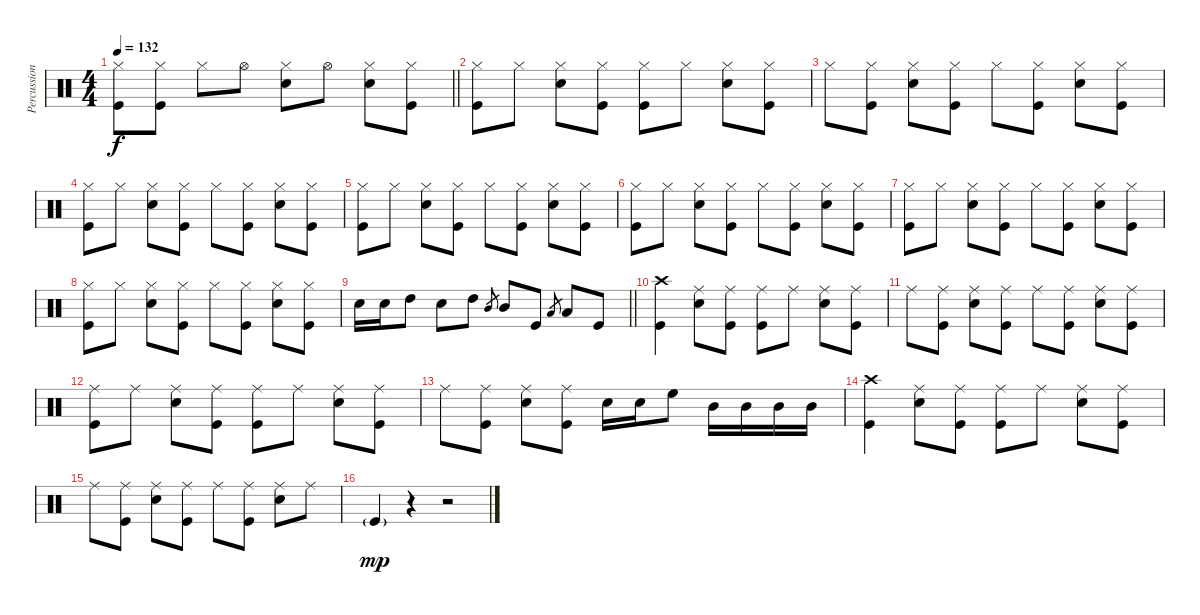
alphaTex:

\track ("Percussion" "Percussion") {instrument percussion}
\staff {score}
\articulation defaults
\ts (4 4)
\tempo 132
\clef neutral
\barLineRight lightlight
\ks c
("Kick (hit)" "Hi-Hat (closed)").8{dy f} ("Kick (hit)" "Hi-Hat (closed)").8 "Hi-Hat (closed)".8 "Hi-Hat (open)".8 ("Snare (hit) 2" "Hi-Hat (closed)").8 "Hi-Hat (open)".8 ("Snare (hit) 2" "Hi-Hat (closed)").8 ("Kick (hit)" "Hi-Hat (closed)").8 |
("Hi-Hat (closed)" "Kick (hit)").8 "Hi-Hat (closed)".8 ("Hi-Hat (closed)" "Snare (hit) 2").8 ("Hi-Hat (closed)" "Kick (hit)").8 ("Hi-Hat (closed)" "Kick (hit)").8 "Hi-Hat (closed)".8 ("Hi-Hat (closed)" "Snare (hit) 2").8 ("Hi-Hat (closed)" "Kick (hit)").8 |
"Hi-Hat (closed)".8 ("Kick (hit)" "Hi-Hat (closed)").8 ("Snare (hit) 2" "Hi-Hat (closed)").8 ("Kick (hit)" "Hi-Hat (closed)").8 "Hi-Hat (closed)".8 ("Kick (hit)" "Hi-Hat (closed)").8 ("Snare (hit) 2" "Hi-Hat (closed)").8 ("Kick (hit)" "Hi-Hat (closed)").8 |
("Hi-Hat (closed)" "Kick (hit)").8 "Hi-Hat (closed)".8 ("Hi-Hat (closed)" "Snare (hit) 2").8 ("Hi-Hat (closed)" "Kick (hit)").8 "Hi-Hat (closed)".8 ("Hi-Hat (closed)" "Kick (hit)").8 ("Hi-Hat (closed)" "Snare (hit) 2").8 ("Hi-Hat (closed)" "Kick (hit)").8 |
("Kick (hit)" "Hi-Hat (closed)").8 "Hi-Hat (closed)".8 ("Snare (hit) 2" "Hi-Hat (closed)").8 ("Kick (hit)" "Hi-Hat (closed)").8 "Hi-Hat (closed)".8 ("Kick (hit)" "Hi-Hat (closed)").8 ("Snare (hit) 2" "Hi-Hat (closed)").8 ("Kick (hit)" "Hi-Hat (closed)").8 |
("Hi-Hat (closed)" "Kick (hit)").8 "Hi-Hat (closed)".8 ("Hi-Hat (closed)" "Snare (hit) 2").8 ("Hi-Hat (closed)" "Kick (hit)").8 "Hi-Hat (closed)".8 ("Hi-Hat (closed)" "Kick (hit)").8 ("Hi-Hat (closed)" "Snare (hit) 2").8 ("Hi-Hat (closed)" "Kick (hit)").8 |
("Hi-Hat (closed)" "Kick (hit)").8 "Hi-Hat (closed)".8 ("Hi-Hat (closed)" "Snare (hit) 2").8 ("Hi-Hat (closed)" "Kick (hit)").8 "Hi-Hat (closed)".8 ("Hi-Hat (closed)" "Kick (hit)").8 ("Hi-Hat (closed)" "Snare (hit) 2").8 ("Hi-Hat (closed)" "Kick (hit)").8 |
("Kick (hit)" "Hi-Hat (closed)").8 "Hi-Hat (closed)".8 ("Snare (hit) 2" "Hi-Hat (closed)").8 ("Kick (hit)" "Hi-Hat (closed)").8 "Hi-Hat (closed)".8 ("Kick (hit)" "Hi-Hat (closed)").8 ("Snare (hit) 2" "Hi-Hat (closed)").8 ("Kick (hit)" "Hi-Hat (closed)").8 |
\barLineRight lightlight "Snare (hit) 2".16 "Snare (hit) 2".16 "High Tom (hit)".8 "Snare (hit) 2".8 "High Tom (hit)".8 "Mid Tom (hit)".8{gr} "Mid Tom (hit)".8 "Kick (hit)".8 "Low Tom (hit)".8{gr} "Low Tom (hit)".8 "Kick (hit)".8
|
("Crash high (hit)" "Kick (hit)").4 ("Ride (middle)" "Snare (hit) 2").8 ("Ride (middle)" "Kick (hit)").8 ("Ride (middle)" "Kick (hit)").8 "Ride (middle)".8 ("Ride (middle)" "Snare (hit) 2").8 ("Ride (middle)" "Kick (hit)").8 |
"Ride (middle)".8 ("Kick (hit)" "Ride (middle)").8 ("Snare (hit) 2" "Ride (middle)").8 ("Kick (hit)" "Ride (middle)").8 "Ride (middle)".8 ("Kick (hit)" "Ride (middle)").8 ("Snare (hit) 2" "Ride (middle)").8 ("Kick (hit)" "Ride (middle)").8 |
("Ride (middle)" "Kick (hit)").8 "Ride (middle)".8 ("Ride (middle)" "Snare (hit) 2").8 ("Ride (middle)" "Kick (hit)").8 ("Ride (middle)" "Kick (hit)").8 "Ride (middle)".8 ("Ride (middle)" "Snare (hit) 2").8 ("Ride (middle)" "Kick (hit)").8 |
"Ride (middle)".8 ("Kick (hit)" "Ride (middle)").8 ("Snare (hit) 2" "Ride (middle)").8 ("Kick (hit)" "Ride (middle)").8 "Snare (hit) 2".16 "Snare (hit) 2".16 "High Floor Tom (hit)".8 "Mid Tom (hit)".16 "Mid Tom (hit)".16 "Mid Tom (hit)".16 "Mid Tom (hit)".16 |
("Crash high (hit)" "Kick (hit)").4 ("Ride (middle)" "Snare (hit) 2").8 ("Ride (middle)" "Kick (hit)").8 ("Ride (middle)" "Kick (hit)").8 "Ride (middle)".8 ("Ride (middle)" "Snare (hit) 2").8 ("Ride (middle)" "Kick (hit)").8 |
"Ride (middle)".8 ("Ride (middle)" "Kick (hit)").8 ("Ride (middle)" "Snare (hit) 2").8 ("Ride (middle)" "Kick (hit)").8 "Ride (middle)".8 ("Ride (middle)" "Kick (hit)").8 ("Ride (middle)" "Snare (hit) 2").8 "Ride (middle)".8 |
"Kick (hit)"{g}.4{dy mp} r.4 r.2
